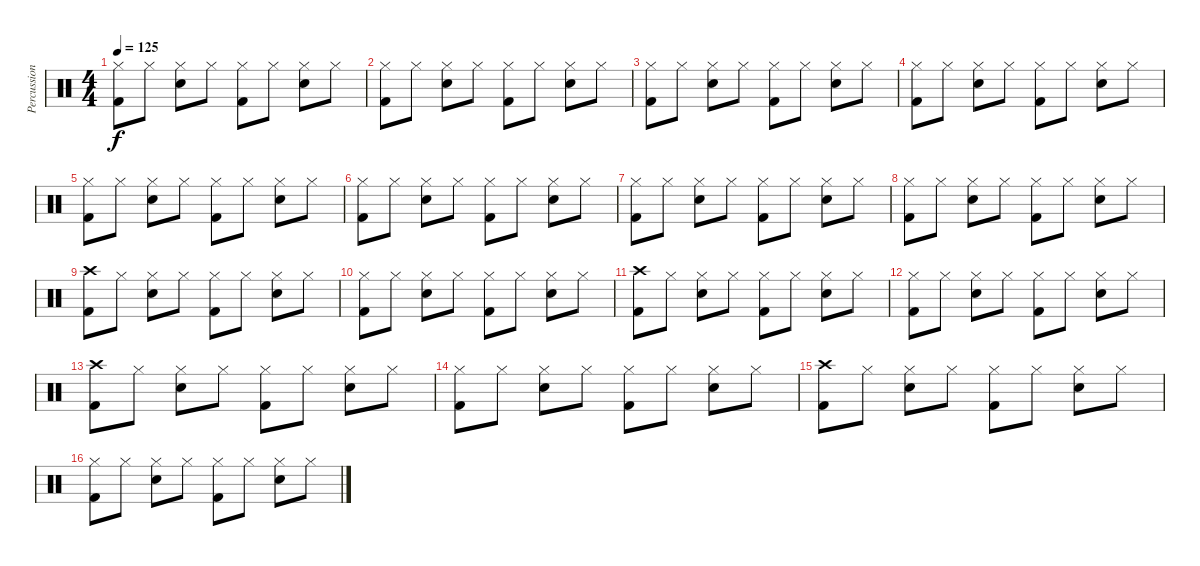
\track ("Percussion" "Percussion") {instrument percussion}
\staff {score}
\articulation defaults
\ts (4 4)
\tempo 125
\clef neutral
\ks c
("Hi-Hat (closed)" "Kick (hit) 2").8{dy f} "Hi-Hat (closed)".8 ("Hi-Hat (closed)" "Snare (hit) 2").8 "Hi-Hat (closed)".8 ("Hi-Hat (closed)" "Kick (hit) 2").8 "Hi-Hat (closed)".8 ("Hi-Hat (closed)" "Snare (hit) 2").8 "Hi-Hat (closed)".8 |
("Hi-Hat (closed)" "Kick (hit) 2").8 "Hi-Hat (closed)".8 ("Hi-Hat (closed)" "Snare (hit) 2").8 "Hi-Hat (closed)".8 ("Hi-Hat (closed)" "Kick (hit) 2").8 "Hi-Hat (closed)".8 ("Hi-Hat (closed)" "Snare (hit) 2").8 "Hi-Hat (closed)".8 |
("Hi-Hat (closed)" "Kick (hit) 2").8 "Hi-Hat (closed)".8 ("Hi-Hat (closed)" "Snare (hit) 2").8 "Hi-Hat (closed)".8 ("Hi-Hat (closed)" "Kick (hit) 2").8 "Hi-Hat (closed)".8 ("Hi-Hat (closed)" "Snare (hit) 2").8 "Hi-Hat (closed)".8 |
("Hi-Hat (closed)" "Kick (hit) 2").8 "Hi-Hat (closed)".8 ("Hi-Hat (closed)" "Snare (hit) 2").8 "Hi-Hat (closed)".8 ("Hi-Hat (closed)" "Kick (hit) 2").8 "Hi-Hat (closed)".8 ("Hi-Hat (closed)" "Snare (hit) 2").8 "Hi-Hat (closed)".8 |
("Hi-Hat (closed)" "Kick (hit) 2").8 "Hi-Hat (closed)".8 ("Hi-Hat (closed)" "Snare (hit) 2").8 "Hi-Hat (closed)".8 ("Hi-Hat (closed)" "Kick (hit) 2").8 "Hi-Hat (closed)".8 ("Hi-Hat (closed)" "Snare (hit) 2").8 "Hi-Hat (closed)".8 |
("Hi-Hat (closed)" "Kick (hit) 2").8 "Hi-Hat (closed)".8 ("Hi-Hat (closed)" "Snare (hit) 2").8 "Hi-Hat (closed)".8 ("Hi-Hat (closed)" "Kick (hit) 2").8 "Hi-Hat (closed)".8 ("Hi-Hat (closed)" "Snare (hit) 2").8 "Hi-Hat (closed)".8 |
("Hi-Hat (closed)" "Kick (hit) 2").8 "Hi-Hat (closed)".8 ("Hi-Hat (closed)" "Snare (hit) 2").8 "Hi-Hat (closed)".8 ("Hi-Hat (closed)" "Kick (hit) 2").8 "Hi-Hat (closed)".8 ("Hi-Hat (closed)" "Snare (hit) 2").8 "Hi-Hat (closed)".8 |
("Hi-Hat (closed)" "Kick (hit) 2").8 "Hi-Hat (closed)".8 ("Hi-Hat (closed)" "Snare (hit) 2").8 "Hi-Hat (closed)".8 ("Hi-Hat (closed)" "Kick (hit) 2").8 "Hi-Hat (closed)".8 ("Hi-Hat (closed)" "Snare (hit) 2").8 "Hi-Hat (closed)".8 |
("Crash high (hit)" "Kick (hit) 2").8 "Hi-Hat (closed)".8 ("Hi-Hat (closed)" "Snare (hit) 2").8 "Hi-Hat (closed)".8 ("Hi-Hat (closed)" "Kick (hit) 2").8 "Hi-Hat (closed)".8 ("Hi-Hat (closed)" "Snare (hit) 2").8 "Hi-Hat (closed)".8 |
("Hi-Hat (closed)" "Kick (hit) 2").8 "Hi-Hat (closed)".8 ("Hi-Hat (closed)" "Snare (hit) 2").8 "Hi-Hat (closed)".8 ("Hi-Hat (closed)" "Kick (hit) 2").8 "Hi-Hat (closed)".8 ("Hi-Hat (closed)" "Snare (hit) 2").8 "Hi-Hat (closed)".8 |
("Crash high (hit)" "Kick (hit) 2").8 "Hi-Hat (closed)".8 ("Hi-Hat (closed)" "Snare (hit) 2").8 "Hi-Hat (closed)".8 ("Hi-Hat (closed)" "Kick (hit) 2").8 "Hi-Hat (closed)".8 ("Hi-Hat (closed)" "Snare (hit) 2").8 "Hi-Hat (closed)".8 |
("Hi-Hat (closed)" "Kick (hit) 2").8 "Hi-Hat (closed)".8 ("Hi-Hat (closed)" "Snare (hit) 2").8 "Hi-Hat (closed)".8 ("Hi-Hat (closed)" "Kick (hit) 2").8 "Hi-Hat (closed)".8 ("Hi-Hat (closed)" "Snare (hit) 2").8 "Hi-Hat (closed)".8 |
("Crash high (hit)" "Kick (hit) 2").8 "Hi-Hat (closed)".8 ("Hi-Hat (closed)" "Snare (hit) 2").8 "Hi-Hat (closed)".8 ("Hi-Hat (closed)" "Kick (hit) 2").8 "Hi-Hat (closed)".8 ("Hi-Hat (closed)" "Snare (hit) 2").8 "Hi-Hat (closed)".8 |
("Hi-Hat (closed)" "Kick (hit) 2").8 "Hi-Hat (closed)".8 ("Hi-Hat (closed)" "Snare (hit) 2").8 "Hi-Hat (closed)".8 ("Hi-Hat (closed)" "Kick (hit) 2").8 "Hi-Hat (closed)".8 ("Hi-Hat (closed)" "Snare (hit) 2").8 "Hi-Hat (closed)".8 |
("Crash high (hit)" "Kick (hit) 2").8 "Hi-Hat (closed)".8 ("Hi-Hat (closed)" "Snare (hit) 2").8 "Hi-Hat (closed)".8 ("Hi-Hat (closed)" "Kick (hit) 2").8 "Hi-Hat (closed)".8 ("Hi-Hat (closed)" "Snare (hit) 2").8 "Hi-Hat (closed)".8 |
("Hi-Hat (closed)" "Kick (hit) 2").8 "Hi-Hat (closed)".8 ("Hi-Hat (closed)" "Snare (hit) 2").8 "Hi-Hat (closed)".8 ("Hi-Hat (closed)" "Kick (hit) 2").8 "Hi-Hat (closed)".8 ("Hi-Hat (closed)" "Snare (hit) 2").8 "Hi-Hat (closed)".8
